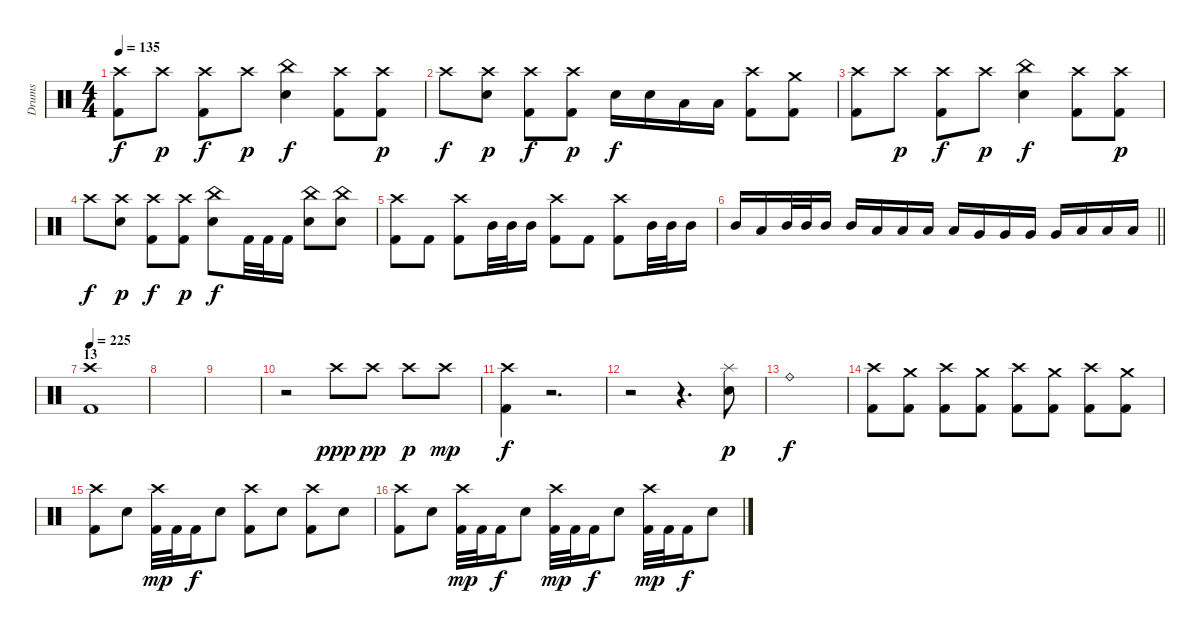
\track ("Drums" "Drums") {instrument percussion}
\staff {score}
\articulation defaults
\ts (4 4)
\tempo 135
\clef neutral
\ks c
("Crash high (hit)" "Kick (hit) 2").8{dy f} "Crash high (hit)".8{dy p} ("Crash high (hit)" "Kick (hit) 2").8{dy f} "Crash high (hit)".8{dy p} ("China (hit)" "Electric Snare (hit)").4{dy f} ("Crash high (hit)" "Kick (hit) 2").8 ("Crash high (hit)" "Kick (hit) 2").8{dy p} |
"Crash high (hit)".8{dy f} ("Crash high (hit)" "Electric Snare (hit)").8{dy p} ("Crash high (hit)" "Kick (hit) 2").8{dy f} ("Crash high (hit)" "Kick (hit) 2").8{dy p} "Electric Snare (hit)".16{dy f} "Electric Snare (hit)".16 "Low Tom (hit)".16 "Low Tom (hit)".16 ("Crash high (hit)" "Kick (hit) 2").8 ("Crash medium (hit)" "Kick (hit) 2").8 |
("Crash high (hit)" "Kick (hit) 2").8 "Crash high (hit)".8{dy p} ("Crash high (hit)" "Kick (hit) 2").8{dy f} "Crash high (hit)".8{dy p} ("China (hit)" "Electric Snare (hit)").4{dy f} ("Crash high (hit)" "Kick (hit) 2").8 ("Crash high (hit)" "Kick (hit) 2").8{dy p} |
"Crash high (hit)".8{dy f} ("Crash high (hit)" "Electric Snare (hit)").8{dy p} ("Crash high (hit)" "Kick (hit) 2").8{dy f} ("Crash high (hit)" "Kick (hit) 2").8{dy p} ("China (hit)" "Electric Snare (hit)").8{dy f} "Kick (hit) 2".32 "Kick (hit) 2".32 "Kick (hit) 2".16 ("China (hit)" "Electric Snare (hit)").8 ("China (hit)" "Electric Snare (hit)").8 |
("Crash high (hit)" "Kick (hit) 2").8 "Kick (hit) 2".8 ("Crash high (hit)" "Kick (hit) 2").8 "Mid Tom (hit)".32 "Mid Tom (hit)".32 "Mid Tom (hit)".16 ("Crash high (hit)" "Kick (hit) 2").8 "Kick (hit) 2".8 ("Crash high (hit)" "Kick (hit) 2").8 "Mid Tom (hit)".32 "Mid Tom (hit)".32 "Mid Tom (hit)".16 |
\barLineRight lightlight "Mid Tom (hit)".16 "Low Tom (hit)".16 "Mid Tom (hit)".32 "Mid Tom (hit)".32 "Mid Tom (hit)".16 "Mid Tom (hit)".16 "Low Tom (hit)".16 "Low Tom (hit)".16 "Low Tom (hit)".16 "Low Tom (hit)".16 "Very Low Tom (hit)".16 "Very Low Tom (hit)".16 "Very Low Tom (hit)".16 "Very Low Tom (hit)".16 "Low Floor Tom (hit)".16 "Low Floor Tom (hit)".16 "Low Floor Tom (hit)".16
|
\section ("" "13")
\tempo 225
("Crash high (hit)" "Kick (hit) 2").1 |
|
|
r.2 "Crash high (hit)".8{dy ppp} "Crash high (hit)".8{dy pp} "Crash high (hit)".8{dy p} "Crash high (hit)".8{dy mp} |
("Crash high (hit)" "Kick (hit) 2").4{dy f} r.2{d} |
r.2 r.4{d} ("Splash (hit)" "Electric Snare (hit)").8{dy p} |
"Ride (bell)".1{dy f} |
("Crash high (hit)" "Kick (hit) 2").8 ("Crash medium (hit)" "Kick (hit) 2").8 ("Crash high (hit)" "Kick (hit) 2").8 ("Crash medium (hit)" "Kick (hit) 2").8 ("Crash high (hit)" "Kick (hit) 2").8 ("Crash medium (hit)" "Kick (hit) 2").8 ("Crash high (hit)" "Kick (hit) 2").8 ("Crash medium (hit)" "Kick (hit) 2").8 |
("Crash high (hit)" "Kick (hit) 2").8 "Electric Snare (hit)".8 ("Crash high (hit)" "Kick (hit) 2").32{dy mp} "Kick (hit) 2".32 "Kick (hit) 2".16{dy f} "Electric Snare (hit)".8 ("Crash high (hit)" "Kick (hit) 2").8 "Electric Snare (hit)".8 ("Crash high (hit)" "Kick (hit) 2").8 "Electric Snare (hit)".8 |
("Crash high (hit)" "Kick (hit) 2").8 "Electric Snare (hit)".8 ("Crash high (hit)" "Kick (hit) 2").32{dy mp} "Kick (hit) 2".32 "Kick (hit) 2".16{dy f} "Electric Snare (hit)".8 ("Crash high (hit)" "Kick (hit) 2").32{dy mp} "Kick (hit) 2".32 "Kick (hit) 2".16{dy f} "Electric Snare (hit)".8 ("Crash high (hit)" "Kick (hit) 2").32{dy mp} "Kick (hit) 2".32 "Kick (hit) 2".16{dy f} "Electric Snare (hit)".8
